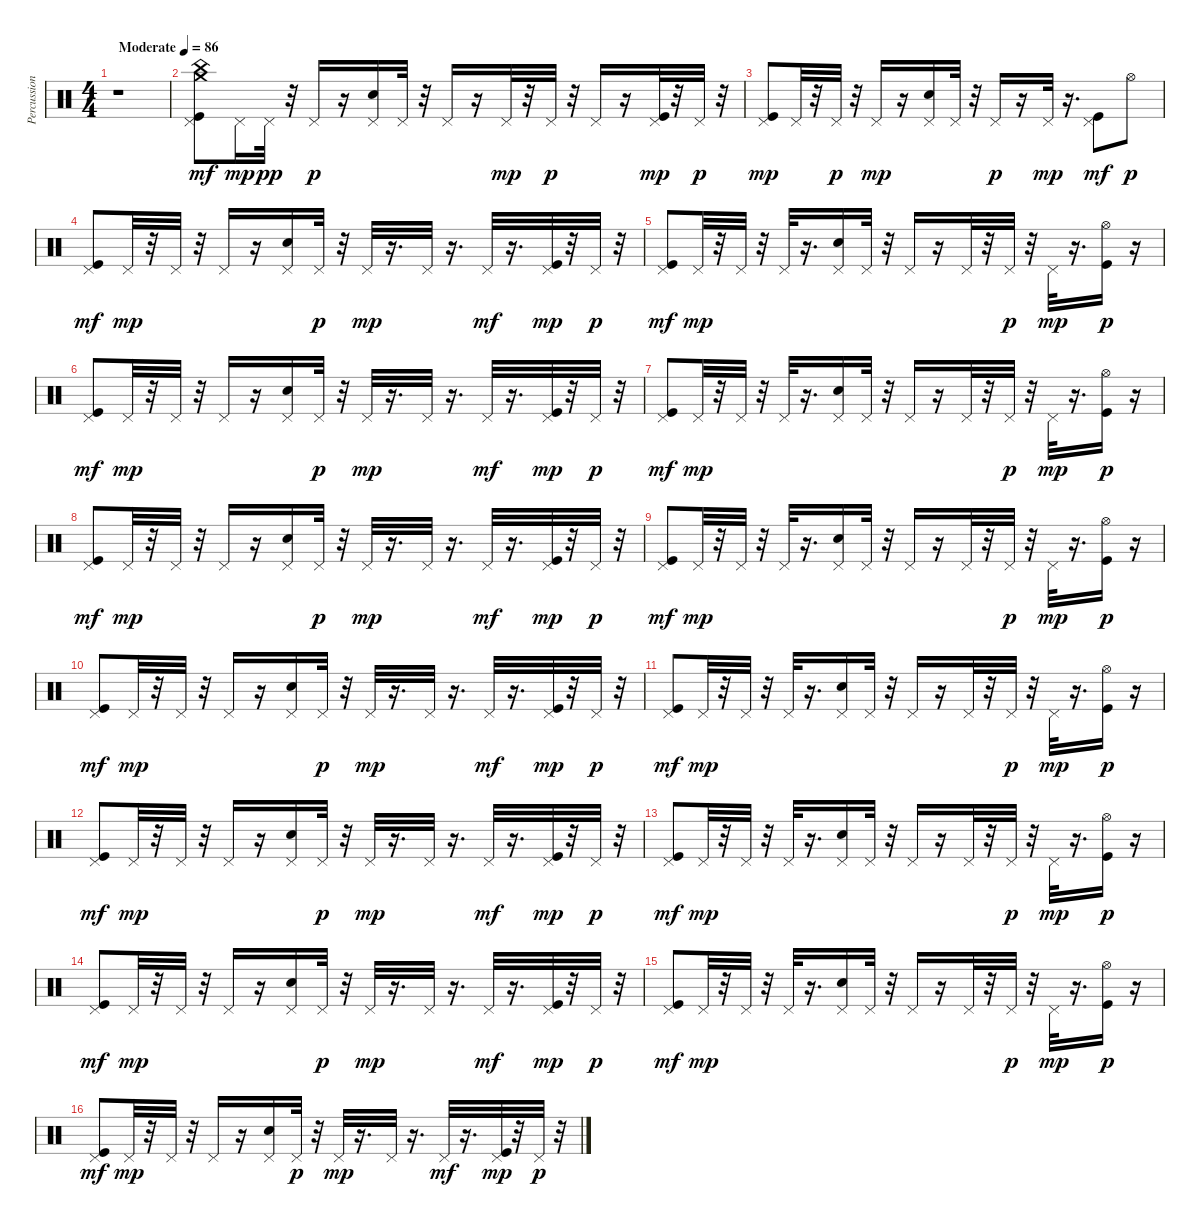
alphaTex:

\track ("Percussions" "Percussion") {instrument percussion}
\staff {score}
\articulation defaults
\ts (4 4)
\tempo (86 "Moderate")
\clef neutral
\ks c
r.1{dy mf} |
("Kick (hit)" "Pedal Hi-Hat (hit)" "China (hit)" "Crash medium (hit)").8 "Pedal Hi-Hat (hit)".16{dy mp} "Pedal Hi-Hat (hit)".32{dy pp} r.32 "Pedal Hi-Hat (hit)".16{dy p} r.16 ("Electric Snare (hit)" "Pedal Hi-Hat (hit)").16 "Pedal Hi-Hat (hit)".32 r.32 "Pedal Hi-Hat (hit)".16 r.16 "Pedal Hi-Hat (hit)".32{dy mp} r.32 "Pedal Hi-Hat (hit)".32{dy p} r.32 "Pedal Hi-Hat (hit)".16 r.16 ("Kick (hit)" "Pedal Hi-Hat (hit)").32{dy mp} r.32 "Pedal Hi-Hat (hit)".32{dy p} r.32 |
("Kick (hit)" "Pedal Hi-Hat (hit)").8{dy mp} "Pedal Hi-Hat (hit)".32 r.32 "Pedal Hi-Hat (hit)".32{dy p} r.32 "Pedal Hi-Hat (hit)".16{dy mp} r.16 ("Electric Snare (hit)" "Pedal Hi-Hat (hit)").16 "Pedal Hi-Hat (hit)".32 r.32 "Pedal Hi-Hat (hit)".16{dy p} r.16 "Pedal Hi-Hat (hit)".32{dy mp} r.16{d} ("Kick (hit)" "Pedal Hi-Hat (hit)").8{dy mf} "Hi-Hat (open)".8{dy p} |
("Kick (hit)" "Pedal Hi-Hat (hit)").8{dy mf} "Pedal Hi-Hat (hit)".32{dy mp} r.32 "Pedal Hi-Hat (hit)".32 r.32 "Pedal Hi-Hat (hit)".16 r.16 ("Electric Snare (hit)" "Pedal Hi-Hat (hit)").16 "Pedal Hi-Hat (hit)".32{dy p} r.32 "Pedal Hi-Hat (hit)".32{dy mp} r.16{d} "Pedal Hi-Hat (hit)".32 r.16{d} "Pedal Hi-Hat (hit)".32{dy mf} r.16{d} ("Kick (hit)" "Pedal Hi-Hat (hit)").32{dy mp} r.32 "Pedal Hi-Hat (hit)".32{dy p} r.32 |
("Kick (hit)" "Pedal Hi-Hat (hit)").8{dy mf} "Pedal Hi-Hat (hit)".32{dy mp} r.32 "Pedal Hi-Hat (hit)".32 r.32 "Pedal Hi-Hat (hit)".32 r.16{d} ("Electric Snare (hit)" "Pedal Hi-Hat (hit)").16 "Pedal Hi-Hat (hit)".32 r.32 "Pedal Hi-Hat (hit)".16 r.16 "Pedal Hi-Hat (hit)".32 r.32 "Pedal Hi-Hat (hit)".32{dy p} r.32 "Pedal Hi-Hat (hit)".32{dy mp} r.16{d} ("Kick (hit)" "Hi-Hat (open)").16{dy p} r.16 |
("Kick (hit)" "Pedal Hi-Hat (hit)").8{dy mf} "Pedal Hi-Hat (hit)".32{dy mp} r.32 "Pedal Hi-Hat (hit)".32 r.32 "Pedal Hi-Hat (hit)".16 r.16 ("Electric Snare (hit)" "Pedal Hi-Hat (hit)").16 "Pedal Hi-Hat (hit)".32{dy p} r.32 "Pedal Hi-Hat (hit)".32{dy mp} r.16{d} "Pedal Hi-Hat (hit)".32 r.16{d} "Pedal Hi-Hat (hit)".32{dy mf} r.16{d} ("Kick (hit)" "Pedal Hi-Hat (hit)").32{dy mp} r.32 "Pedal Hi-Hat (hit)".32{dy p} r.32 |
("Kick (hit)" "Pedal Hi-Hat (hit)").8{dy mf} "Pedal Hi-Hat (hit)".32{dy mp} r.32 "Pedal Hi-Hat (hit)".32 r.32 "Pedal Hi-Hat (hit)".32 r.16{d} ("Electric Snare (hit)" "Pedal Hi-Hat (hit)").16 "Pedal Hi-Hat (hit)".32 r.32 "Pedal Hi-Hat (hit)".16 r.16 "Pedal Hi-Hat (hit)".32 r.32 "Pedal Hi-Hat (hit)".32{dy p} r.32 "Pedal Hi-Hat (hit)".32{dy mp} r.16{d} ("Kick (hit)" "Hi-Hat (open)").16{dy p} r.16 |
("Kick (hit)" "Pedal Hi-Hat (hit)").8{dy mf} "Pedal Hi-Hat (hit)".32{dy mp} r.32 "Pedal Hi-Hat (hit)".32 r.32 "Pedal Hi-Hat (hit)".16 r.16 ("Electric Snare (hit)" "Pedal Hi-Hat (hit)").16 "Pedal Hi-Hat (hit)".32{dy p} r.32 "Pedal Hi-Hat (hit)".32{dy mp} r.16{d} "Pedal Hi-Hat (hit)".32 r.16{d} "Pedal Hi-Hat (hit)".32{dy mf} r.16{d} ("Kick (hit)" "Pedal Hi-Hat (hit)").32{dy mp} r.32 "Pedal Hi-Hat (hit)".32{dy p} r.32 |
("Kick (hit)" "Pedal Hi-Hat (hit)").8{dy mf} "Pedal Hi-Hat (hit)".32{dy mp} r.32 "Pedal Hi-Hat (hit)".32 r.32 "Pedal Hi-Hat (hit)".32 r.16{d} ("Electric Snare (hit)" "Pedal Hi-Hat (hit)").16 "Pedal Hi-Hat (hit)".32 r.32 "Pedal Hi-Hat (hit)".16 r.16 "Pedal Hi-Hat (hit)".32 r.32 "Pedal Hi-Hat (hit)".32{dy p} r.32 "Pedal Hi-Hat (hit)".32{dy mp} r.16{d} ("Kick (hit)" "Hi-Hat (open)").16{dy p} r.16 |
("Kick (hit)" "Pedal Hi-Hat (hit)").8{dy mf} "Pedal Hi-Hat (hit)".32{dy mp} r.32 "Pedal Hi-Hat (hit)".32 r.32 "Pedal Hi-Hat (hit)".16 r.16 ("Electric Snare (hit)" "Pedal Hi-Hat (hit)").16 "Pedal Hi-Hat (hit)".32{dy p} r.32 "Pedal Hi-Hat (hit)".32{dy mp} r.16{d} "Pedal Hi-Hat (hit)".32 r.16{d} "Pedal Hi-Hat (hit)".32{dy mf} r.16{d} ("Kick (hit)" "Pedal Hi-Hat (hit)").32{dy mp} r.32 "Pedal Hi-Hat (hit)".32{dy p} r.32 |
("Kick (hit)" "Pedal Hi-Hat (hit)").8{dy mf} "Pedal Hi-Hat (hit)".32{dy mp} r.32 "Pedal Hi-Hat (hit)".32 r.32 "Pedal Hi-Hat (hit)".32 r.16{d} ("Electric Snare (hit)" "Pedal Hi-Hat (hit)").16 "Pedal Hi-Hat (hit)".32 r.32 "Pedal Hi-Hat (hit)".16 r.16 "Pedal Hi-Hat (hit)".32 r.32 "Pedal Hi-Hat (hit)".32{dy p} r.32 "Pedal Hi-Hat (hit)".32{dy mp} r.16{d} ("Kick (hit)" "Hi-Hat (open)").16{dy p} r.16 |
("Kick (hit)" "Pedal Hi-Hat (hit)").8{dy mf} "Pedal Hi-Hat (hit)".32{dy mp} r.32 "Pedal Hi-Hat (hit)".32 r.32 "Pedal Hi-Hat (hit)".16 r.16 ("Electric Snare (hit)" "Pedal Hi-Hat (hit)").16 "Pedal Hi-Hat (hit)".32{dy p} r.32 "Pedal Hi-Hat (hit)".32{dy mp} r.16{d} "Pedal Hi-Hat (hit)".32 r.16{d} "Pedal Hi-Hat (hit)".32{dy mf} r.16{d} ("Kick (hit)" "Pedal Hi-Hat (hit)").32{dy mp} r.32 "Pedal Hi-Hat (hit)".32{dy p} r.32 |
("Kick (hit)" "Pedal Hi-Hat (hit)").8{dy mf} "Pedal Hi-Hat (hit)".32{dy mp} r.32 "Pedal Hi-Hat (hit)".32 r.32 "Pedal Hi-Hat (hit)".32 r.16{d} ("Electric Snare (hit)" "Pedal Hi-Hat (hit)").16 "Pedal Hi-Hat (hit)".32 r.32 "Pedal Hi-Hat (hit)".16 r.16 "Pedal Hi-Hat (hit)".32 r.32 "Pedal Hi-Hat (hit)".32{dy p} r.32 "Pedal Hi-Hat (hit)".32{dy mp} r.16{d} ("Kick (hit)" "Hi-Hat (open)").16{dy p} r.16 |
("Kick (hit)" "Pedal Hi-Hat (hit)").8{dy mf} "Pedal Hi-Hat (hit)".32{dy mp} r.32 "Pedal Hi-Hat (hit)".32 r.32 "Pedal Hi-Hat (hit)".16 r.16 ("Electric Snare (hit)" "Pedal Hi-Hat (hit)").16 "Pedal Hi-Hat (hit)".32{dy p} r.32 "Pedal Hi-Hat (hit)".32{dy mp} r.16{d} "Pedal Hi-Hat (hit)".32 r.16{d} "Pedal Hi-Hat (hit)".32{dy mf} r.16{d} ("Kick (hit)" "Pedal Hi-Hat (hit)").32{dy mp} r.32 "Pedal Hi-Hat (hit)".32{dy p} r.32 |
("Kick (hit)" "Pedal Hi-Hat (hit)").8{dy mf} "Pedal Hi-Hat (hit)".32{dy mp} r.32 "Pedal Hi-Hat (hit)".32 r.32 "Pedal Hi-Hat (hit)".32 r.16{d} ("Electric Snare (hit)" "Pedal Hi-Hat (hit)").16 "Pedal Hi-Hat (hit)".32 r.32 "Pedal Hi-Hat (hit)".16 r.16 "Pedal Hi-Hat (hit)".32 r.32 "Pedal Hi-Hat (hit)".32{dy p} r.32 "Pedal Hi-Hat (hit)".32{dy mp} r.16{d} ("Kick (hit)" "Hi-Hat (open)").16{dy p} r.16 |
("Kick (hit)" "Pedal Hi-Hat (hit)").8{dy mf} "Pedal Hi-Hat (hit)".32{dy mp} r.32 "Pedal Hi-Hat (hit)".32 r.32 "Pedal Hi-Hat (hit)".16 r.16 ("Electric Snare (hit)" "Pedal Hi-Hat (hit)").16 "Pedal Hi-Hat (hit)".32{dy p} r.32 "Pedal Hi-Hat (hit)".32{dy mp} r.16{d} "Pedal Hi-Hat (hit)".32 r.16{d} "Pedal Hi-Hat (hit)".32{dy mf} r.16{d} ("Kick (hit)" "Pedal Hi-Hat (hit)").32{dy mp} r.32 "Pedal Hi-Hat (hit)".32{dy p} r.32
